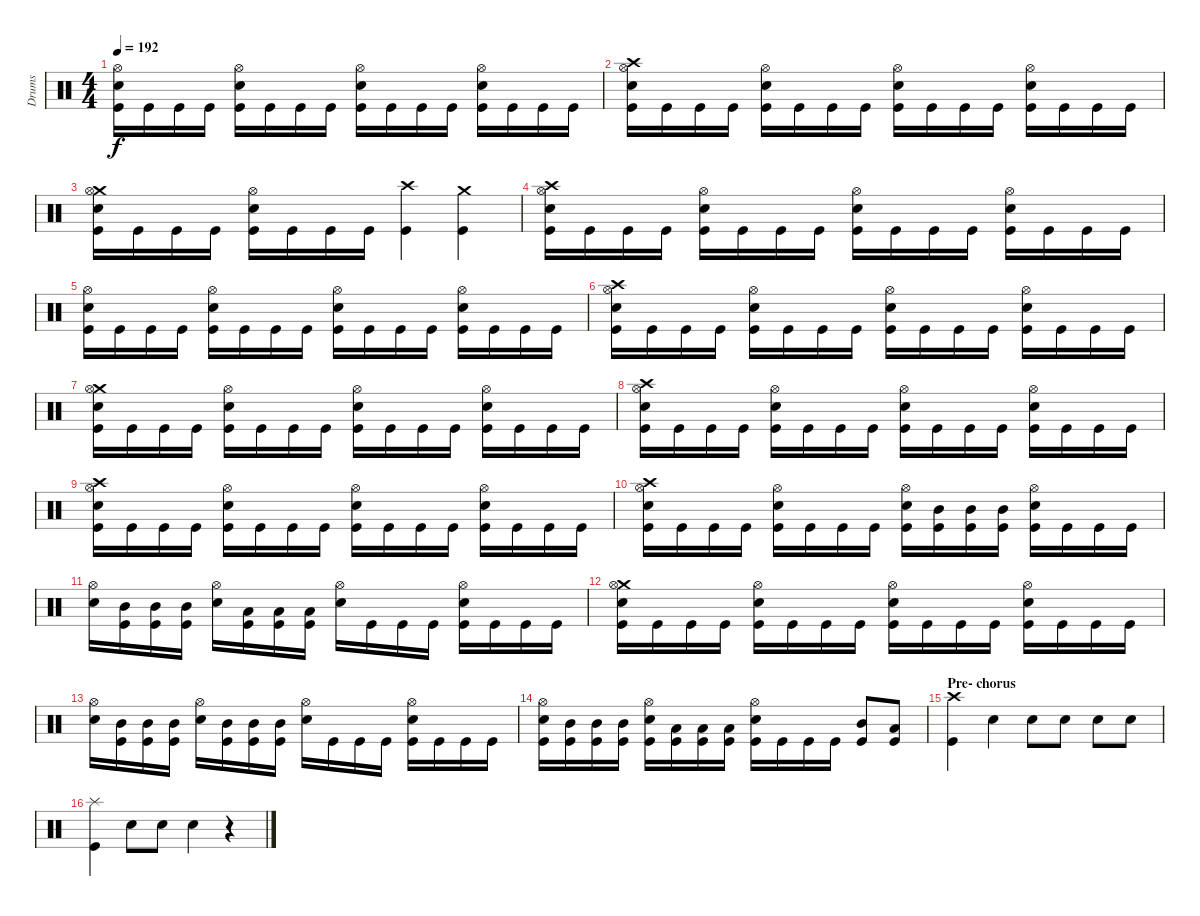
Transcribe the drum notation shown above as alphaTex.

\track ("Drums" "Drums") {instrument percussion}
\staff {score}
\articulation defaults
\ts (4 4)
\tempo 192
\clef neutral
\ks c
("Hi-Hat (open)" "Snare (hit) 2" "Kick (hit)").16{dy f} "Kick (hit)".16 "Kick (hit)".16 "Kick (hit)".16 ("Hi-Hat (open)" "Snare (hit) 2" "Kick (hit)").16 "Kick (hit)".16 "Kick (hit)".16 "Kick (hit)".16 ("Hi-Hat (open)" "Snare (hit) 2" "Kick (hit)").16 "Kick (hit)".16 "Kick (hit)".16 "Kick (hit)".16 ("Hi-Hat (open)" "Snare (hit) 2" "Kick (hit)").16 "Kick (hit)".16 "Kick (hit)".16 "Kick (hit)".16 |
("Crash high (hit)" "Hi-Hat (open)" "Snare (hit) 2" "Kick (hit)").16 "Kick (hit)".16 "Kick (hit)".16 "Kick (hit)".16 ("Hi-Hat (open)" "Snare (hit) 2" "Kick (hit)").16 "Kick (hit)".16 "Kick (hit)".16 "Kick (hit)".16 ("Hi-Hat (open)" "Snare (hit) 2" "Kick (hit)").16 "Kick (hit)".16 "Kick (hit)".16 "Kick (hit)".16 ("Hi-Hat (open)" "Snare (hit) 2" "Kick (hit)").16 "Kick (hit)".16 "Kick (hit)".16 "Kick (hit)".16 |
("Crash medium (hit)" "Hi-Hat (open)" "Snare (hit) 2" "Kick (hit)").16 "Kick (hit)".16 "Kick (hit)".16 "Kick (hit)".16 ("Hi-Hat (open)" "Snare (hit) 2" "Kick (hit)").16 "Kick (hit)".16 "Kick (hit)".16 "Kick (hit)".16 ("Crash high (hit)" "Kick (hit)").4 ("Crash medium (hit)" "Kick (hit)").4 |
("Crash high (hit)" "Hi-Hat (open)" "Snare (hit) 2" "Kick (hit)").16 "Kick (hit)".16 "Kick (hit)".16 "Kick (hit)".16 ("Hi-Hat (open)" "Snare (hit) 2" "Kick (hit)").16 "Kick (hit)".16 "Kick (hit)".16 "Kick (hit)".16 ("Hi-Hat (open)" "Snare (hit) 2" "Kick (hit)").16 "Kick (hit)".16 "Kick (hit)".16 "Kick (hit)".16 ("Hi-Hat (open)" "Snare (hit) 2" "Kick (hit)").16 "Kick (hit)".16 "Kick (hit)".16 "Kick (hit)".16 |
("Hi-Hat (open)" "Snare (hit) 2" "Kick (hit)").16 "Kick (hit)".16 "Kick (hit)".16 "Kick (hit)".16 ("Hi-Hat (open)" "Snare (hit) 2" "Kick (hit)").16 "Kick (hit)".16 "Kick (hit)".16 "Kick (hit)".16 ("Hi-Hat (open)" "Snare (hit) 2" "Kick (hit)").16 "Kick (hit)".16 "Kick (hit)".16 "Kick (hit)".16 ("Hi-Hat (open)" "Snare (hit) 2" "Kick (hit)").16 "Kick (hit)".16 "Kick (hit)".16 "Kick (hit)".16 |
("Crash high (hit)" "Hi-Hat (open)" "Snare (hit) 2" "Kick (hit)").16 "Kick (hit)".16 "Kick (hit)".16 "Kick (hit)".16 ("Hi-Hat (open)" "Snare (hit) 2" "Kick (hit)").16 "Kick (hit)".16 "Kick (hit)".16 "Kick (hit)".16 ("Hi-Hat (open)" "Snare (hit) 2" "Kick (hit)").16 "Kick (hit)".16 "Kick (hit)".16 "Kick (hit)".16 ("Hi-Hat (open)" "Snare (hit) 2" "Kick (hit)").16 "Kick (hit)".16 "Kick (hit)".16 "Kick (hit)".16 |
("Crash medium (hit)" "Hi-Hat (open)" "Snare (hit) 2" "Kick (hit)").16 "Kick (hit)".16 "Kick (hit)".16 "Kick (hit)".16 ("Hi-Hat (open)" "Snare (hit) 2" "Kick (hit)").16 "Kick (hit)".16 "Kick (hit)".16 "Kick (hit)".16 ("Hi-Hat (open)" "Snare (hit) 2" "Kick (hit)").16 "Kick (hit)".16 "Kick (hit)".16 "Kick (hit)".16 ("Hi-Hat (open)" "Snare (hit) 2" "Kick (hit)").16 "Kick (hit)".16 "Kick (hit)".16 "Kick (hit)".16 |
("Crash high (hit)" "Hi-Hat (open)" "Snare (hit) 2" "Kick (hit)").16 "Kick (hit)".16 "Kick (hit)".16 "Kick (hit)".16 ("Hi-Hat (open)" "Snare (hit) 2" "Kick (hit)").16 "Kick (hit)".16 "Kick (hit)".16 "Kick (hit)".16 ("Hi-Hat (open)" "Snare (hit) 2" "Kick (hit)").16 "Kick (hit)".16 "Kick (hit)".16 "Kick (hit)".16 ("Hi-Hat (open)" "Snare (hit) 2" "Kick (hit)").16 "Kick (hit)".16 "Kick (hit)".16 "Kick (hit)".16 |
("Crash high (hit)" "Hi-Hat (open)" "Snare (hit) 2" "Kick (hit)").16 "Kick (hit)".16 "Kick (hit)".16 "Kick (hit)".16 ("Hi-Hat (open)" "Snare (hit) 2" "Kick (hit)").16 "Kick (hit)".16 "Kick (hit)".16 "Kick (hit)".16 ("Hi-Hat (open)" "Snare (hit) 2" "Kick (hit)").16 "Kick (hit)".16 "Kick (hit)".16 "Kick (hit)".16 ("Hi-Hat (open)" "Snare (hit) 2" "Kick (hit)").16 "Kick (hit)".16 "Kick (hit)".16 "Kick (hit)".16 |
("Crash high (hit)" "Hi-Hat (open)" "Snare (hit) 2" "Kick (hit)").16 "Kick (hit)".16 "Kick (hit)".16 "Kick (hit)".16 ("Hi-Hat (open)" "Snare (hit) 2" "Kick (hit)").16 "Kick (hit)".16 "Kick (hit)".16 "Kick (hit)".16 ("Hi-Hat (open)" "Snare (hit) 2" "Kick (hit)").16 ("Mid Tom (hit)" "Kick (hit)").16 ("Mid Tom (hit)" "Kick (hit)").16 ("Mid Tom (hit)" "Kick (hit)").16 ("Hi-Hat (open)" "Snare (hit) 2" "Kick (hit)").16 "Kick (hit)".16 "Kick (hit)".16 "Kick (hit)".16 |
("Hi-Hat (open)" "Snare (hit) 2").16 ("Mid Tom (hit)" "Kick (hit)").16 ("Mid Tom (hit)" "Kick (hit)").16 ("Mid Tom (hit)" "Kick (hit)").16 ("Hi-Hat (open)" "Snare (hit) 2").16 ("Low Tom (hit)" "Kick (hit)").16 ("Low Tom (hit)" "Kick (hit)").16 ("Low Tom (hit)" "Kick (hit)").16 ("Hi-Hat (open)" "Snare (hit) 2").16 "Kick (hit)".16 "Kick (hit)".16 "Kick (hit)".16 ("Hi-Hat (open)" "Snare (hit) 2" "Kick (hit)").16 "Kick (hit)".16 "Kick (hit)".16 "Kick (hit)".16 |
("Crash medium (hit)" "Hi-Hat (open)" "Snare (hit) 2" "Kick (hit)").16 "Kick (hit)".16 "Kick (hit)".16 "Kick (hit)".16 ("Hi-Hat (open)" "Snare (hit) 2" "Kick (hit)").16 "Kick (hit)".16 "Kick (hit)".16 "Kick (hit)".16 ("Hi-Hat (open)" "Snare (hit) 2" "Kick (hit)").16 "Kick (hit)".16 "Kick (hit)".16 "Kick (hit)".16 ("Hi-Hat (open)" "Snare (hit) 2" "Kick (hit)").16 "Kick (hit)".16 "Kick (hit)".16 "Kick (hit)".16 |
("Hi-Hat (open)" "Snare (hit) 2").16 ("Mid Tom (hit)" "Kick (hit)").16 ("Mid Tom (hit)" "Kick (hit)").16 ("Mid Tom (hit)" "Kick (hit)").16 ("Hi-Hat (open)" "Snare (hit) 2").16 ("Mid Tom (hit)" "Kick (hit)").16 ("Mid Tom (hit)" "Kick (hit)").16 ("Mid Tom (hit)" "Kick (hit)").16 ("Hi-Hat (open)" "Snare (hit) 2").16 "Kick (hit)".16 "Kick (hit)".16 "Kick (hit)".16 ("Hi-Hat (open)" "Snare (hit) 2" "Kick (hit)").16 "Kick (hit)".16 "Kick (hit)".16 "Kick (hit)".16 |
("Hi-Hat (open)" "Snare (hit) 2" "Kick (hit)").16 ("Mid Tom (hit)" "Kick (hit)").16 ("Mid Tom (hit)" "Kick (hit)").16 ("Mid Tom (hit)" "Kick (hit)").16 ("Hi-Hat (open)" "Snare (hit) 2" "Kick (hit)").16 ("Low Tom (hit)" "Kick (hit)").16 ("Low Tom (hit)" "Kick (hit)").16 ("Low Tom (hit)" "Kick (hit)").16 ("Hi-Hat (open)" "Snare (hit) 2" "Kick (hit)").16 "Kick (hit)".16 "Kick (hit)".16 "Kick (hit)".16 ("Mid Tom (hit)" "Kick (hit)").8 ("Low Tom (hit)" "Kick (hit)").8 |
\section ("" "Pre- chorus")
("Crash high (hit)" "Kick (hit)").4 "Snare (hit) 2".4 "Snare (hit) 2".8 "Snare (hit) 2".8 "Snare (hit) 2".8 "Snare (hit) 2".8 |
("Splash (hit)" "Kick (hit)").4 "Snare (hit) 2".8 "Snare (hit) 2".8 "Snare (hit) 2".4 r.4
